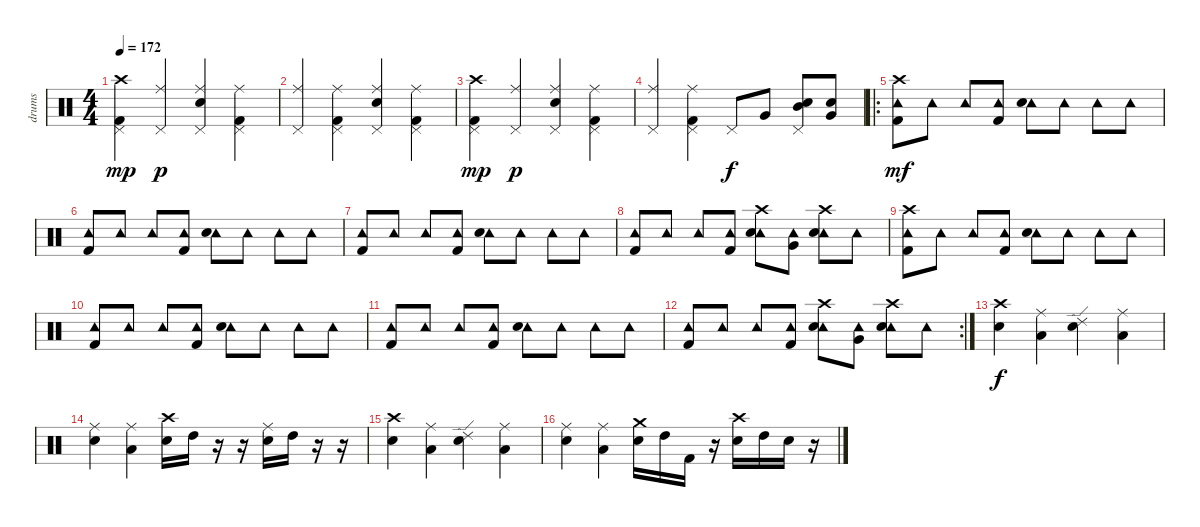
\track ("drums" "drums") {instrument percussion}
\staff {score}
\articulation defaults
\ts (4 4)
\tempo 172
\clef neutral
\ks c
("Crash high (hit)" "Kick (hit) 2" "Pedal Hi-Hat (hit)").4{dy mp} ("Ride (middle)" "Pedal Hi-Hat (hit)").4{dy p} ("Ride (middle)" "Electric Snare (hit)" "Pedal Hi-Hat (hit)").4 ("Ride (middle)" "Kick (hit) 2" "Pedal Hi-Hat (hit)").4 |
("Ride (middle)" "Pedal Hi-Hat (hit)").4 ("Ride (middle)" "Kick (hit) 2" "Pedal Hi-Hat (hit)").4 ("Ride (middle)" "Electric Snare (hit)" "Pedal Hi-Hat (hit)").4 ("Ride (middle)" "Kick (hit) 2" "Pedal Hi-Hat (hit)").4 |
("Crash high (hit)" "Kick (hit) 2" "Pedal Hi-Hat (hit)").4{dy mp} ("Ride (middle)" "Pedal Hi-Hat (hit)").4{dy p} ("Ride (middle)" "Electric Snare (hit)" "Pedal Hi-Hat (hit)").4 ("Ride (middle)" "Kick (hit) 2" "Pedal Hi-Hat (hit)").4 |
("Ride (middle)" "Pedal Hi-Hat (hit)").4 ("Ride (middle)" "Kick (hit) 2" "Pedal Hi-Hat (hit)").4 "Pedal Hi-Hat (hit)".8{dy f} "Very Low Tom (hit)".8 ("Electric Snare (hit)" "Mid Tom (hit)" "Pedal Hi-Hat (hit)").8 ("Very Low Tom (hit)" "Electric Snare (hit)").8 |
\ro
("Tambourine (hit)" "Kick (hit) 2" "Crash high (hit)").8{dy mf} "Tambourine (hit)".8 "Tambourine (hit)".8 ("Tambourine (hit)" "Kick (hit) 2").8 ("Tambourine (hit)" "Snare (hit) 2").8 "Tambourine (hit)".8 "Tambourine (hit)".8 "Tambourine (hit)".8 |
("Tambourine (hit)" "Kick (hit) 2").8 "Tambourine (hit)".8 "Tambourine (hit)".8 ("Tambourine (hit)" "Kick (hit) 2").8 ("Tambourine (hit)" "Snare (hit) 2").8 "Tambourine (hit)".8 "Tambourine (hit)".8 "Tambourine (hit)".8 |
("Tambourine (hit)" "Kick (hit) 2").8 "Tambourine (hit)".8 "Tambourine (hit)".8 ("Tambourine (hit)" "Kick (hit) 2").8 ("Tambourine (hit)" "Snare (hit) 2").8 "Tambourine (hit)".8 "Tambourine (hit)".8 "Tambourine (hit)".8 |
("Tambourine (hit)" "Kick (hit) 2").8 "Tambourine (hit)".8 "Tambourine (hit)".8 ("Tambourine (hit)" "Kick (hit) 2").8 ("Tambourine (hit)" "Snare (hit) 2" "Crash high (hit)").8 ("Tambourine (hit)" "Very Low Tom (hit)").8 ("Tambourine (hit)" "Snare (hit) 2" "Crash high (hit)").8 "Tambourine (hit)".8 |
("Tambourine (hit)" "Kick (hit) 2" "Crash high (hit)").8 "Tambourine (hit)".8 "Tambourine (hit)".8 ("Tambourine (hit)" "Kick (hit) 2").8 ("Tambourine (hit)" "Snare (hit) 2").8 "Tambourine (hit)".8 "Tambourine (hit)".8 "Tambourine (hit)".8 |
("Tambourine (hit)" "Kick (hit) 2").8 "Tambourine (hit)".8 "Tambourine (hit)".8 ("Tambourine (hit)" "Kick (hit) 2").8 ("Tambourine (hit)" "Snare (hit) 2").8 "Tambourine (hit)".8 "Tambourine (hit)".8 "Tambourine (hit)".8 |
("Tambourine (hit)" "Kick (hit) 2").8 "Tambourine (hit)".8 "Tambourine (hit)".8 ("Tambourine (hit)" "Kick (hit) 2").8 ("Tambourine (hit)" "Snare (hit) 2").8 "Tambourine (hit)".8 "Tambourine (hit)".8 "Tambourine (hit)".8 |
\rc 2
("Tambourine (hit)" "Kick (hit) 2").8 "Tambourine (hit)".8 "Tambourine (hit)".8 ("Tambourine (hit)" "Kick (hit) 2").8 ("Tambourine (hit)" "Snare (hit) 2" "Crash high (hit)").8 ("Tambourine (hit)" "Very Low Tom (hit)").8 ("Tambourine (hit)" "Snare (hit) 2" "Crash high (hit)").8 "Tambourine (hit)".8 |
("Crash high (hit)" "Snare (hit) 2").4{dy f} ("Ride (middle)" "Low Tom (hit)").4 ("Ride (edge) 2" "Snare (hit) 2").4 ("Ride (middle)" "Low Tom (hit)").4 |
("Ride (middle)" "Snare (hit) 2").4 ("Ride (middle)" "Low Tom (hit)").4 ("Crash high (hit)" "Snare (hit) 2").16 "High Tom (hit)".16 r.16 r.16 ("Ride (middle)" "Snare (hit) 2").16 "High Tom (hit)".16 r.16 r.16 |
("Crash high (hit)" "Snare (hit) 2").4 ("Ride (middle)" "Low Tom (hit)").4 ("Ride (edge) 2" "Snare (hit) 2").4 ("Ride (middle)" "Low Tom (hit)").4 |
("Ride (middle)" "Snare (hit) 2").4 ("Ride (middle)" "Low Tom (hit)").4 ("Crash medium (hit)" "Snare (hit) 2").16 "High Tom (hit)".16 "Kick (hit) 2".16 r.16 ("Crash high (hit)" "Snare (hit) 2").16 "High Tom (hit)".16 "Snare (hit) 2".16 r.16
